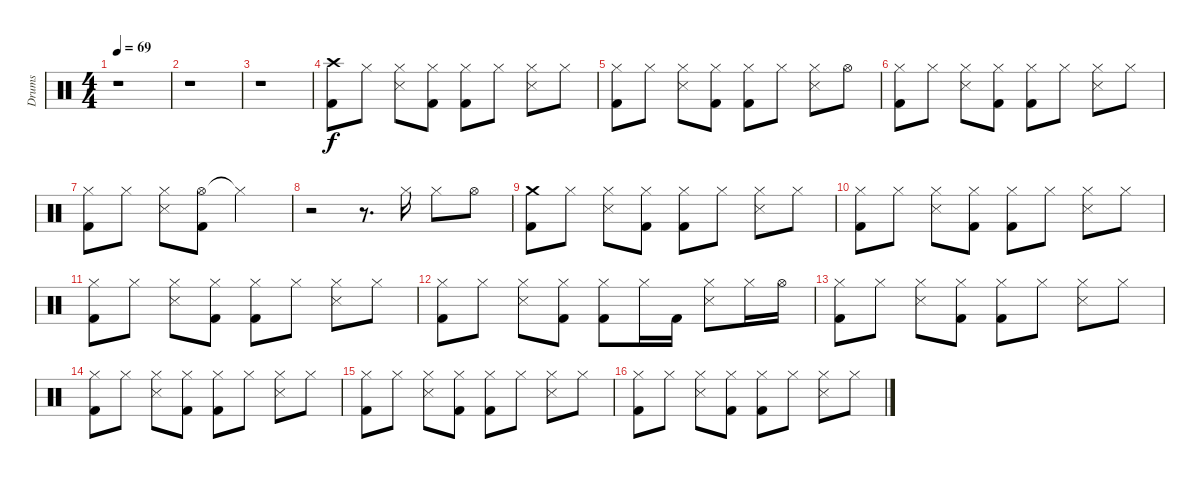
\track ("Drums" "Drums") {instrument percussion}
\staff {score}
\articulation defaults
\ts (4 4)
\tempo 69
\clef neutral
\ks c
r.1{dy f} |
r.1 |
r.1 |
("Crash high (hit)" "Kick (hit) 2").8 "Hi-Hat (closed)".8 ("Hi-Hat (closed)" "Snare (side stick) 3").8 ("Hi-Hat (closed)" "Kick (hit) 2").8 ("Hi-Hat (closed)" "Kick (hit) 2").8 "Hi-Hat (closed)".8 ("Hi-Hat (closed)" "Snare (side stick) 3").8 "Hi-Hat (closed)".8 |
("Hi-Hat (closed)" "Kick (hit) 2").8 "Hi-Hat (closed)".8 ("Hi-Hat (closed)" "Snare (side stick) 3").8 ("Hi-Hat (closed)" "Kick (hit) 2").8 ("Hi-Hat (closed)" "Kick (hit) 2").8 "Hi-Hat (closed)".8 ("Hi-Hat (closed)" "Snare (side stick) 3").8 "Hi-Hat (open)".8 |
("Hi-Hat (closed)" "Kick (hit) 2").8 "Hi-Hat (closed)".8 ("Hi-Hat (closed)" "Snare (side stick) 3").8 ("Hi-Hat (closed)" "Kick (hit) 2").8 ("Hi-Hat (closed)" "Kick (hit) 2").8 "Hi-Hat (closed)".8 ("Hi-Hat (closed)" "Snare (side stick) 3").8 "Hi-Hat (closed)".8 |
("Hi-Hat (closed)" "Kick (hit) 2").8 "Hi-Hat (closed)".8 ("Hi-Hat (closed)" "Snare (side stick) 3").8 ("Hi-Hat (open)" "Kick (hit) 2").8 "Hi-Hat (closed)"{t}.2 |
r.2 r.8{d} "Hi-Hat (closed)".16 "Hi-Hat (closed)".8 "Hi-Hat (open)".8 |
("Crash medium (hit)" "Kick (hit) 2").8 "Hi-Hat (closed)".8 ("Hi-Hat (closed)" "Snare (side stick) 3").8 ("Hi-Hat (closed)" "Kick (hit) 2").8 ("Hi-Hat (closed)" "Kick (hit) 2").8 "Hi-Hat (closed)".8 ("Hi-Hat (closed)" "Snare (side stick) 3").8 "Hi-Hat (closed)".8 |
("Hi-Hat (closed)" "Kick (hit) 2").8 "Hi-Hat (closed)".8 ("Hi-Hat (closed)" "Snare (side stick) 3").8 ("Hi-Hat (closed)" "Kick (hit) 2").8 ("Hi-Hat (closed)" "Kick (hit) 2").8 "Hi-Hat (closed)".8 ("Hi-Hat (closed)" "Snare (side stick) 3").8 "Hi-Hat (closed)".8 |
("Hi-Hat (closed)" "Kick (hit) 2").8 "Hi-Hat (closed)".8 ("Hi-Hat (closed)" "Snare (side stick) 3").8 ("Hi-Hat (closed)" "Kick (hit) 2").8 ("Hi-Hat (closed)" "Kick (hit) 2").8 "Hi-Hat (closed)".8 ("Hi-Hat (closed)" "Snare (side stick) 3").8 "Hi-Hat (closed)".8 |
("Hi-Hat (closed)" "Kick (hit) 2").8 "Hi-Hat (closed)".8 ("Hi-Hat (closed)" "Snare (side stick) 3").8 ("Hi-Hat (closed)" "Kick (hit) 2").8 ("Hi-Hat (closed)" "Kick (hit) 2").8 "Hi-Hat (closed)".16 "Kick (hit) 2".16 ("Hi-Hat (closed)" "Snare (side stick) 3").8 "Hi-Hat (closed)".16 "Hi-Hat (open)".16 |
("Hi-Hat (closed)" "Kick (hit) 2").8 "Hi-Hat (closed)".8 ("Hi-Hat (closed)" "Snare (side stick) 3").8 ("Hi-Hat (closed)" "Kick (hit) 2").8 ("Hi-Hat (closed)" "Kick (hit) 2").8 "Hi-Hat (closed)".8 ("Hi-Hat (closed)" "Snare (side stick) 3").8 "Hi-Hat (closed)".8 |
("Hi-Hat (closed)" "Kick (hit) 2").8 "Hi-Hat (closed)".8 ("Hi-Hat (closed)" "Snare (side stick) 3").8 ("Hi-Hat (closed)" "Kick (hit) 2").8 ("Hi-Hat (closed)" "Kick (hit) 2").8 "Hi-Hat (closed)".8 ("Hi-Hat (closed)" "Snare (side stick) 3").8 "Hi-Hat (closed)".8 |
("Hi-Hat (closed)" "Kick (hit) 2").8 "Hi-Hat (closed)".8 ("Hi-Hat (closed)" "Snare (side stick) 3").8 ("Hi-Hat (closed)" "Kick (hit) 2").8 ("Hi-Hat (closed)" "Kick (hit) 2").8 "Hi-Hat (closed)".8 ("Hi-Hat (closed)" "Snare (side stick) 3").8 "Hi-Hat (closed)".8 |
("Hi-Hat (closed)" "Kick (hit) 2").8 "Hi-Hat (closed)".8 ("Hi-Hat (closed)" "Snare (side stick) 3").8 ("Hi-Hat (closed)" "Kick (hit) 2").8 ("Hi-Hat (closed)" "Kick (hit) 2").8 "Hi-Hat (closed)".8 ("Hi-Hat (closed)" "Snare (side stick) 3").8 "Hi-Hat (closed)".8
